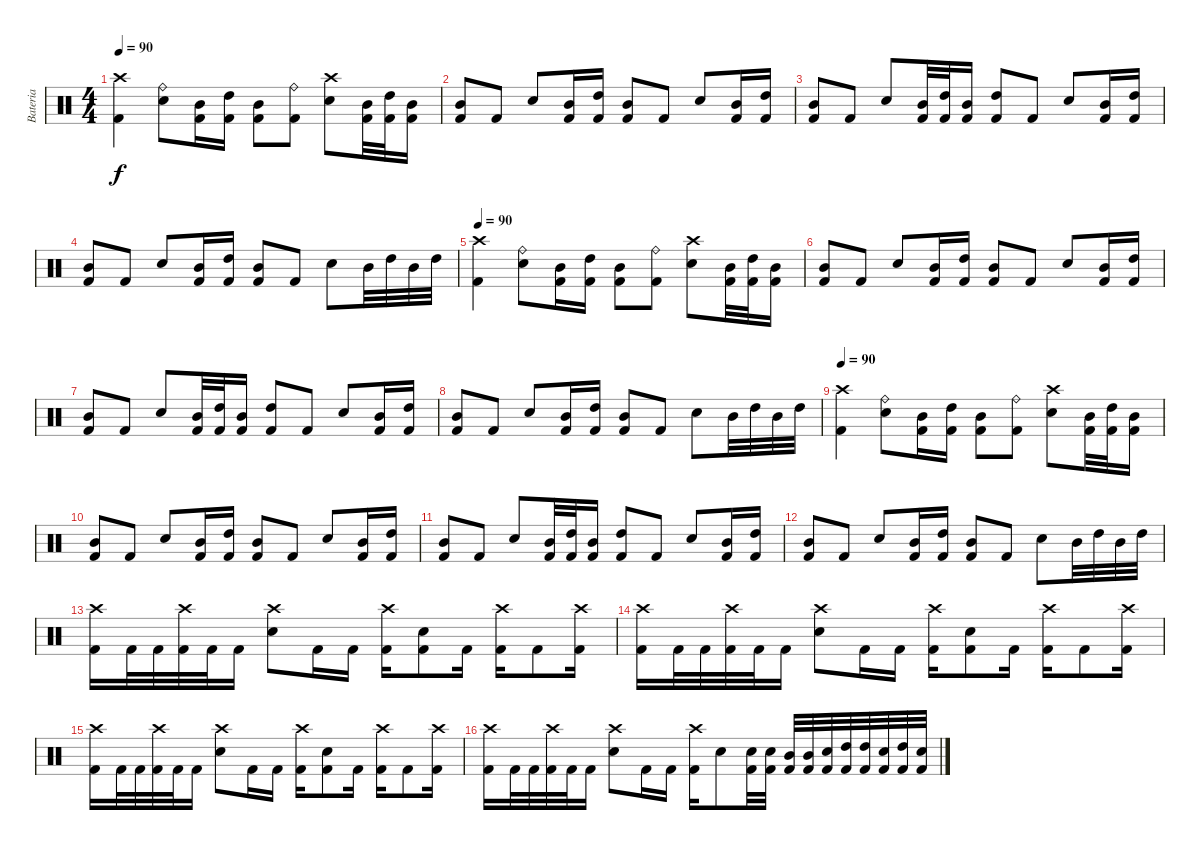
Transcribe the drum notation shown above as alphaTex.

\track ("Bateria" "Bateria") {instrument percussion}
\staff {score}
\articulation defaults
\ts (4 4)
\tempo 90
\clef neutral
\ks c
("Kick (hit) 2" "Crash high (hit)").4{dy f} ("Ride (bell)" "Electric Snare (hit)").8 ("Kick (hit) 2" "Mid Tom (hit)").16 ("Kick (hit) 2" "High Tom (hit)").16 ("Kick (hit) 2" "Mid Tom (hit)").8 ("Ride (bell)" "Kick (hit) 2").8 ("Crash high (hit)" "Electric Snare (hit)").8 ("Kick (hit) 2" "Mid Tom (hit)").32 ("Kick (hit) 2" "High Tom (hit)").32 ("Kick (hit) 2" "Mid Tom (hit)").16 |
("Kick (hit) 2" "Mid Tom (hit)").8 "Kick (hit) 2".8 "Electric Snare (hit)".8 ("Mid Tom (hit)" "Kick (hit) 2").16 ("Kick (hit) 2" "High Tom (hit)").16 ("Kick (hit) 2" "Mid Tom (hit)").8 "Kick (hit) 2".8 "Electric Snare (hit)".8 ("Kick (hit) 2" "Mid Tom (hit)").16 ("Kick (hit) 2" "High Tom (hit)").16 |
("Kick (hit) 2" "Mid Tom (hit)").8 "Kick (hit) 2".8 "Electric Snare (hit)".8 ("Kick (hit) 2" "Mid Tom (hit)").32 ("Kick (hit) 2" "High Tom (hit)").32 ("Kick (hit) 2" "Mid Tom (hit)").16 ("Kick (hit) 2" "High Tom (hit)").8 "Kick (hit) 2".8 "Electric Snare (hit)".8 ("Kick (hit) 2" "Mid Tom (hit)").16 ("Kick (hit) 2" "High Tom (hit)").16 |
("Kick (hit) 2" "Mid Tom (hit)").8 "Kick (hit) 2".8 "Electric Snare (hit)".8 ("Kick (hit) 2" "Mid Tom (hit)").16 ("Kick (hit) 2" "High Tom (hit)").16 ("Kick (hit) 2" "Mid Tom (hit)").8 "Kick (hit) 2".8 "Electric Snare (hit)".8 "Mid Tom (hit)".32 "High Tom (hit)".32 "Mid Tom (hit)".32 "High Tom (hit)".32 |
\tempo 90
("Kick (hit) 2" "Crash high (hit)").4 ("Ride (bell)" "Electric Snare (hit)").8 ("Kick (hit) 2" "Mid Tom (hit)").16 ("Kick (hit) 2" "High Tom (hit)").16 ("Kick (hit) 2" "Mid Tom (hit)").8 ("Ride (bell)" "Kick (hit) 2").8 ("Crash high (hit)" "Electric Snare (hit)").8 ("Kick (hit) 2" "Mid Tom (hit)").32 ("Kick (hit) 2" "High Tom (hit)").32 ("Kick (hit) 2" "Mid Tom (hit)").16 |
("Kick (hit) 2" "Mid Tom (hit)").8 "Kick (hit) 2".8 "Electric Snare (hit)".8 ("Mid Tom (hit)" "Kick (hit) 2").16 ("Kick (hit) 2" "High Tom (hit)").16 ("Kick (hit) 2" "Mid Tom (hit)").8 "Kick (hit) 2".8 "Electric Snare (hit)".8 ("Kick (hit) 2" "Mid Tom (hit)").16 ("Kick (hit) 2" "High Tom (hit)").16 |
("Kick (hit) 2" "Mid Tom (hit)").8 "Kick (hit) 2".8 "Electric Snare (hit)".8 ("Kick (hit) 2" "Mid Tom (hit)").32 ("Kick (hit) 2" "High Tom (hit)").32 ("Kick (hit) 2" "Mid Tom (hit)").16 ("Kick (hit) 2" "High Tom (hit)").8 "Kick (hit) 2".8 "Electric Snare (hit)".8 ("Kick (hit) 2" "Mid Tom (hit)").16 ("Kick (hit) 2" "High Tom (hit)").16 |
("Kick (hit) 2" "Mid Tom (hit)").8 "Kick (hit) 2".8 "Electric Snare (hit)".8 ("Kick (hit) 2" "Mid Tom (hit)").16 ("Kick (hit) 2" "High Tom (hit)").16 ("Kick (hit) 2" "Mid Tom (hit)").8 "Kick (hit) 2".8 "Electric Snare (hit)".8 "Mid Tom (hit)".32 "High Tom (hit)".32 "Mid Tom (hit)".32 "High Tom (hit)".32 |
\tempo 90
("Kick (hit) 2" "Crash high (hit)").4 ("Ride (bell)" "Electric Snare (hit)").8 ("Kick (hit) 2" "Mid Tom (hit)").16 ("Kick (hit) 2" "High Tom (hit)").16 ("Kick (hit) 2" "Mid Tom (hit)").8 ("Ride (bell)" "Kick (hit) 2").8 ("Crash high (hit)" "Electric Snare (hit)").8 ("Kick (hit) 2" "Mid Tom (hit)").32 ("Kick (hit) 2" "High Tom (hit)").32 ("Kick (hit) 2" "Mid Tom (hit)").16 |
("Kick (hit) 2" "Mid Tom (hit)").8 "Kick (hit) 2".8 "Electric Snare (hit)".8 ("Mid Tom (hit)" "Kick (hit) 2").16 ("Kick (hit) 2" "High Tom (hit)").16 ("Kick (hit) 2" "Mid Tom (hit)").8 "Kick (hit) 2".8 "Electric Snare (hit)".8 ("Kick (hit) 2" "Mid Tom (hit)").16 ("Kick (hit) 2" "High Tom (hit)").16 |
("Kick (hit) 2" "Mid Tom (hit)").8 "Kick (hit) 2".8 "Electric Snare (hit)".8 ("Kick (hit) 2" "Mid Tom (hit)").32 ("Kick (hit) 2" "High Tom (hit)").32 ("Kick (hit) 2" "Mid Tom (hit)").16 ("Kick (hit) 2" "High Tom (hit)").8 "Kick (hit) 2".8 "Electric Snare (hit)".8 ("Kick (hit) 2" "Mid Tom (hit)").16 ("Kick (hit) 2" "High Tom (hit)").16 |
("Kick (hit) 2" "Mid Tom (hit)").8 "Kick (hit) 2".8 "Electric Snare (hit)".8 ("Kick (hit) 2" "Mid Tom (hit)").16 ("Kick (hit) 2" "High Tom (hit)").16 ("Kick (hit) 2" "Mid Tom (hit)").8 "Kick (hit) 2".8 "Electric Snare (hit)".8 "Mid Tom (hit)".32 "High Tom (hit)".32 "Mid Tom (hit)".32 "High Tom (hit)".32 |
("Crash high (hit)" "Kick (hit) 2").16 "Kick (hit) 2".32 "Kick (hit) 2".32 ("Crash high (hit)" "Kick (hit) 2").32 "Kick (hit) 2".32 "Kick (hit) 2".16 ("Crash high (hit)" "Electric Snare (hit)").8 "Kick (hit) 2".16 "Kick (hit) 2".16 ("Crash high (hit)" "Kick (hit) 2").16 ("Kick (hit) 2" "Electric Snare (hit)").8 "Kick (hit) 2".16 ("Crash high (hit)" "Kick (hit) 2").16 "Kick (hit) 2".8 ("Kick (hit) 2" "Crash high (hit)").16 |
("Crash high (hit)" "Kick (hit) 2").16 "Kick (hit) 2".32 "Kick (hit) 2".32 ("Crash high (hit)" "Kick (hit) 2").32 "Kick (hit) 2".32 "Kick (hit) 2".16 ("Crash high (hit)" "Electric Snare (hit)").8 "Kick (hit) 2".16 "Kick (hit) 2".16 ("Crash high (hit)" "Kick (hit) 2").16 ("Kick (hit) 2" "Electric Snare (hit)").8 "Kick (hit) 2".16 ("Crash high (hit)" "Kick (hit) 2").16 "Kick (hit) 2".8 ("Kick (hit) 2" "Crash high (hit)").16 |
("Crash high (hit)" "Kick (hit) 2").16 "Kick (hit) 2".32 "Kick (hit) 2".32 ("Crash high (hit)" "Kick (hit) 2").32 "Kick (hit) 2".32 "Kick (hit) 2".16 ("Crash high (hit)" "Electric Snare (hit)").8 "Kick (hit) 2".16 "Kick (hit) 2".16 ("Crash high (hit)" "Kick (hit) 2").16 ("Kick (hit) 2" "Electric Snare (hit)").8 "Kick (hit) 2".16 ("Crash high (hit)" "Kick (hit) 2").16 "Kick (hit) 2".8 ("Kick (hit) 2" "Crash high (hit)").16 |
("Crash high (hit)" "Kick (hit) 2").16 "Kick (hit) 2".32 "Kick (hit) 2".32 ("Crash high (hit)" "Kick (hit) 2").32 "Kick (hit) 2".32 "Kick (hit) 2".16 ("Crash high (hit)" "Electric Snare (hit)").8 "Kick (hit) 2".16 "Kick (hit) 2".16 ("Crash high (hit)" "Kick (hit) 2").16 "Electric Snare (hit)".8 ("Electric Snare (hit)" "Kick (hit) 2").32 ("Electric Snare (hit)" "Kick (hit) 2").32 ("Mid Tom (hit)" "Kick (hit) 2").32 ("Mid Tom (hit)" "Kick (hit) 2").32 ("Electric Snare (hit)" "Kick (hit) 2").32 ("High Tom (hit)" "Kick (hit) 2").32 ("High Tom (hit)" "Kick (hit) 2").32 ("Electric Snare (hit)" "Kick (hit) 2").32 ("High Tom (hit)" "Kick (hit) 2").32 ("Electric Snare (hit)" "Kick (hit) 2").32
